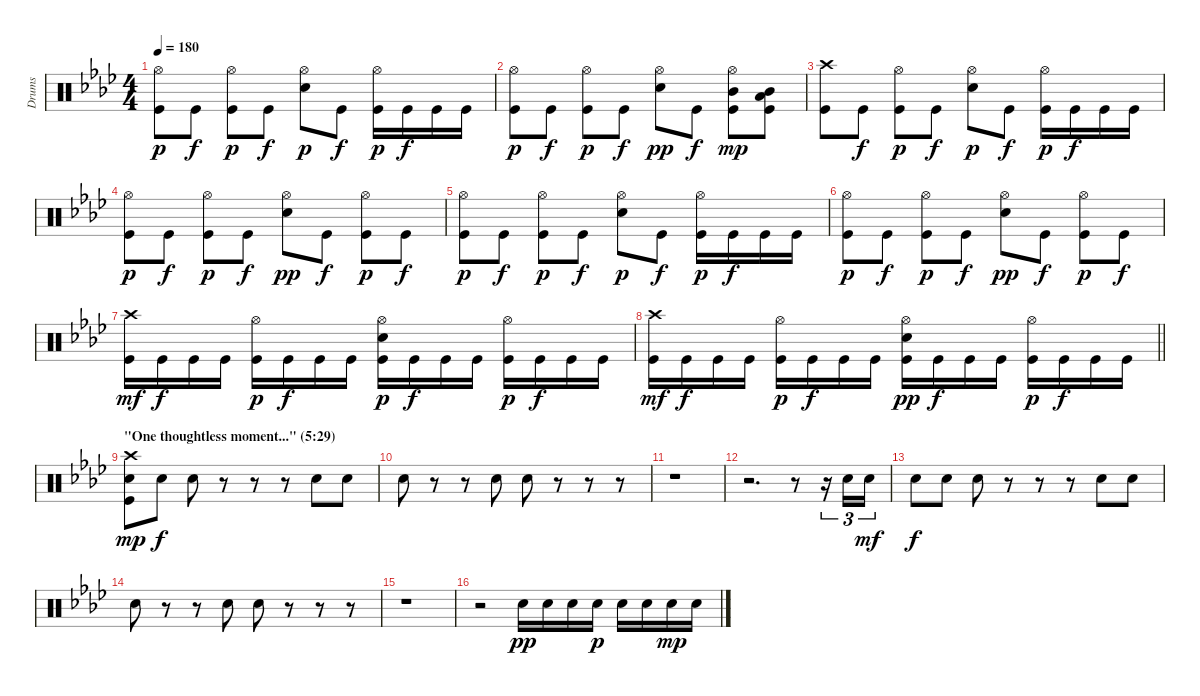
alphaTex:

\track ("Drums" "Drums") {instrument percussion}
\staff {score}
\articulation defaults
\ts (4 4)
\tempo 180
\clef neutral
\ks fminor
("Hi-Hat (open)" "Kick (hit)").8{dy p} "Kick (hit)".8{dy f} ("Hi-Hat (open)" "Kick (hit)").8{dy p} "Kick (hit)".8{dy f} ("Hi-Hat (open)" "Snare (hit) 2").8{dy p} "Kick (hit)".8{dy f} ("Hi-Hat (open)" "Kick (hit)").16{dy p} "Kick (hit)".16{dy f} "Kick (hit)".16 "Kick (hit)".16 |
("Hi-Hat (open)" "Kick (hit)").8{dy p} "Kick (hit)".8{dy f} ("Hi-Hat (open)" "Kick (hit)").8{dy p} "Kick (hit)".8{dy f} ("Hi-Hat (open)" "Snare (hit) 2").8{dy pp} "Kick (hit)".8{dy f} ("Hi-Hat (open)" "Mid Tom (hit)" "Kick (hit)").8{dy mp} ("Low Tom (hit)" "Mid Tom (hit)" "Kick (hit)").8 |
("Crash high (hit)" "Kick (hit)").8 "Kick (hit)".8{dy f} ("Hi-Hat (open)" "Kick (hit)").8{dy p} "Kick (hit)".8{dy f} ("Hi-Hat (open)" "Snare (hit) 2").8{dy p} "Kick (hit)".8{dy f} ("Hi-Hat (open)" "Kick (hit)").16{dy p} "Kick (hit)".16{dy f} "Kick (hit)".16 "Kick (hit)".16 |
("Hi-Hat (open)" "Kick (hit)").8{dy p} "Kick (hit)".8{dy f} ("Hi-Hat (open)" "Kick (hit)").8{dy p} "Kick (hit)".8{dy f} ("Hi-Hat (open)" "Snare (hit) 2").8{dy pp} "Kick (hit)".8{dy f} ("Hi-Hat (open)" "Kick (hit)").8{dy p} "Kick (hit)".8{dy f} |
("Hi-Hat (open)" "Kick (hit)").8{dy p} "Kick (hit)".8{dy f} ("Hi-Hat (open)" "Kick (hit)").8{dy p} "Kick (hit)".8{dy f} ("Hi-Hat (open)" "Snare (hit) 2").8{dy p} "Kick (hit)".8{dy f} ("Hi-Hat (open)" "Kick (hit)").16{dy p} "Kick (hit)".16{dy f} "Kick (hit)".16 "Kick (hit)".16 |
("Hi-Hat (open)" "Kick (hit)").8{dy p} "Kick (hit)".8{dy f} ("Hi-Hat (open)" "Kick (hit)").8{dy p} "Kick (hit)".8{dy f} ("Hi-Hat (open)" "Snare (hit) 2").8{dy pp} "Kick (hit)".8{dy f} ("Hi-Hat (open)" "Kick (hit)").8{dy p} "Kick (hit)".8{dy f} |
("Crash high (hit)" "Kick (hit)").16{dy mf} "Kick (hit)".16{dy f} "Kick (hit)".16 "Kick (hit)".16 ("Hi-Hat (open)" "Kick (hit)").16{dy p} "Kick (hit)".16{dy f} "Kick (hit)".16 "Kick (hit)".16 ("Hi-Hat (open)" "Snare (hit) 2" "Kick (hit)").16{dy p} "Kick (hit)".16{dy f} "Kick (hit)".16 "Kick (hit)".16 ("Hi-Hat (open)" "Kick (hit)").16{dy p} "Kick (hit)".16{dy f} "Kick (hit)".16 "Kick (hit)".16 |
\barLineRight lightlight
("Crash high (hit)" "Kick (hit)").16{dy mf} "Kick (hit)".16{dy f} "Kick (hit)".16 "Kick (hit)".16 ("Hi-Hat (open)" "Kick (hit)").16{dy p} "Kick (hit)".16{dy f} "Kick (hit)".16 "Kick (hit)".16 ("Hi-Hat (open)" "Snare (hit) 2" "Kick (hit)").16{dy pp} "Kick (hit)".16{dy f} "Kick (hit)".16 "Kick (hit)".16 ("Hi-Hat (open)" "Kick (hit)").16{dy p} "Kick (hit)".16{dy f} "Kick (hit)".16 "Kick (hit)".16 |
\section ("" "\"One thoughtless moment...\" (5:29)")
("Crash high (hit)" "Snare (hit) 2" "Kick (hit)").8{dy mp volume 8 balance 2} "Snare (hit) 2".8{dy f} "Snare (hit) 2".8 r.8 r.8 r.8 "Snare (hit) 2".8 "Snare (hit) 2".8 |
"Snare (hit) 2".8 r.8 r.8 "Snare (hit) 2".8 "Snare (hit) 2".8 r.8 r.8 r.8 |
r.1 |
r.2{d} r.8 r.16{tu (3 2)} "Snare (hit) 2".16{tu (3 2)} "Snare (hit) 2".16{tu (3 2) dy mf} |
"Snare (hit) 2".8{dy f} "Snare (hit) 2".8 "Snare (hit) 2".8 r.8 r.8 r.8 "Snare (hit) 2".8 "Snare (hit) 2".8 |
"Snare (hit) 2".8 r.8 r.8 "Snare (hit) 2".8 "Snare (hit) 2".8 r.8 r.8 r.8 |
r.1 |
r.2 "Snare (hit) 2".16{dy pp} "Snare (hit) 2".16 "Snare (hit) 2".16 "Snare (hit) 2".16{dy p} "Snare (hit) 2".16 "Snare (hit) 2".16 "Snare (hit) 2".16{dy mp} "Snare (hit) 2".16
